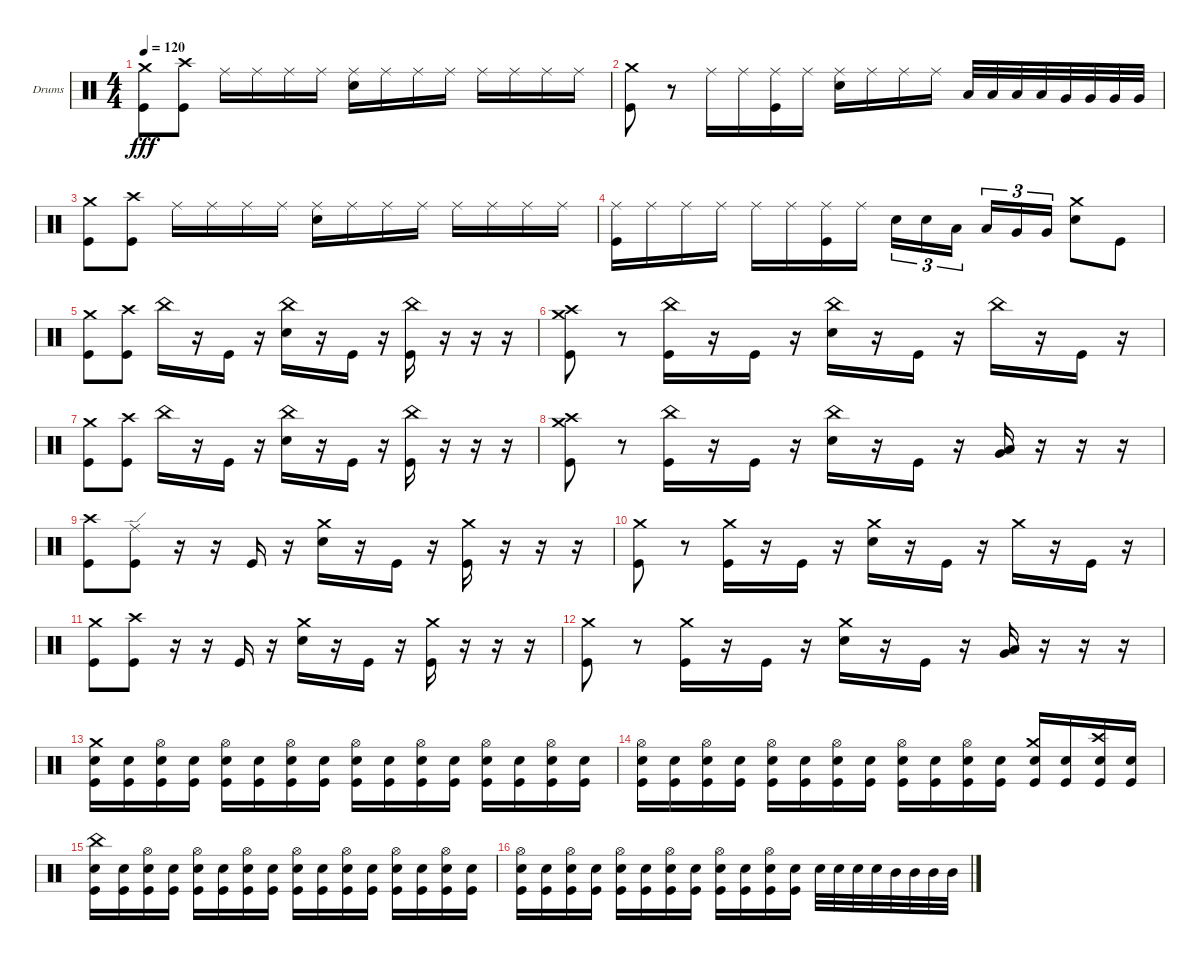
\bracketExtendMode groupsimilarinstruments
\firstSystemTrackNameOrientation horizontal
\otherSystemsTrackNameOrientation horizontal
\track ("Drumkit" "Drums") {instrument percussion}
\staff {score}
\articulation defaults
\ts (4 4)
\tempo 120
\clef neutral
\ks c
("Kick (hit)" "Crash medium (hit)").8{dy fff} ("Crash high (hit)" "Kick (hit)").8 "Ride (middle)".16 "Ride (middle)".16 "Ride (middle)".16 "Ride (middle)".16 ("Ride (middle)" "Snare (hit) 2").16 "Ride (middle)".16 "Ride (middle)".16 "Ride (middle)".16 "Ride (middle)".16 "Ride (middle)".16 "Ride (middle)".16 "Ride (middle)".16 |
("Kick (hit)" "Crash medium (hit)").8 r.8 "Ride (middle)".16 "Ride (middle)".16 ("Ride (middle)" "Kick (hit)").16 "Ride (middle)".16 ("Snare (hit) 2" "Ride (middle)").16 "Ride (middle)".16 "Ride (middle)".16 "Ride (middle)".16 "Low Tom (hit)".32 "Low Tom (hit)".32 "Low Tom (hit)".32 "Low Tom (hit)".32 "Very Low Tom (hit)".32 "Very Low Tom (hit)".32 "Very Low Tom (hit)".32 "Very Low Tom (hit)".32 |
("Kick (hit)" "Crash medium (hit)").8 ("Crash high (hit)" "Kick (hit)").8 "Ride (middle)".16 "Ride (middle)".16 "Ride (middle)".16 "Ride (middle)".16 ("Ride (middle)" "Snare (hit) 2").16 "Ride (middle)".16 "Ride (middle)".16 "Ride (middle)".16 "Ride (middle)".16 "Ride (middle)".16 "Ride (middle)".16 "Ride (middle)".16 |
("Kick (hit)" "Ride (middle)").16 "Ride (middle)".16 "Ride (middle)".16 "Ride (middle)".16 "Ride (middle)".16 "Ride (middle)".16 ("Ride (middle)" "Kick (hit)").16 "Ride (middle)".16 "Snare (hit) 2".16{tu (3 2)} "Snare (hit) 2".16{tu (3 2)} "Low Tom (hit)".16{tu (3 2)} "Low Tom (hit)".16{tu (3 2)} "Very Low Tom (hit)".16{tu (3 2)} "Very Low Tom (hit)".16{tu (3 2)} ("Snare (hit) 2" "Crash medium (hit)").8 "Kick (hit)".8 |
("Kick (hit)" "Crash medium (hit)").8 ("Crash high (hit)" "Kick (hit)").8 "China (hit)".16 r.16 "Kick (hit)".16 r.16 ("China (hit)" "Snare (hit) 2").16 r.16 "Kick (hit)".16 r.16 ("China (hit)" "Kick (hit)").16 r.16 r.16 r.16 |
("Kick (hit)" "Crash medium (hit)" "Crash high (hit)").8 r.8 ("China (hit)" "Kick (hit)").16 r.16 "Kick (hit)".16 r.16 ("China (hit)" "Snare (hit) 2").16 r.16 "Kick (hit)".16 r.16 "China (hit)".16 r.16 "Kick (hit)".16 r.16 |
("Kick (hit)" "Crash medium (hit)").8 ("Crash high (hit)" "Kick (hit)").8 "China (hit)".16 r.16 "Kick (hit)".16 r.16 ("China (hit)" "Snare (hit) 2").16 r.16 "Kick (hit)".16 r.16 ("China (hit)" "Kick (hit)").16 r.16 r.16 r.16 |
("Kick (hit)" "Crash medium (hit)" "Crash high (hit)").8 r.8 ("China (hit)" "Kick (hit)").16 r.16 "Kick (hit)".16 r.16 ("China (hit)" "Snare (hit) 2").16 r.16 "Kick (hit)".16 r.16 ("Very Low Tom (hit)" "Low Tom (hit)").16 r.16 r.16 r.16 |
("Kick (hit)" "Crash high (hit)").8 ("Kick (hit)" "Ride (edge)").8 r.16 r.16 "Kick (hit)".16 r.16 ("Snare (hit) 2" "Crash medium (hit)").16 r.16 "Kick (hit)".16 r.16 ("Kick (hit)" "Crash medium (hit)").16 r.16 r.16 r.16 |
("Kick (hit)" "Crash medium (hit)").8 r.8 ("Kick (hit)" "Crash medium (hit)").16 r.16 "Kick (hit)".16 r.16 ("Snare (hit) 2" "Crash medium (hit)").16 r.16 "Kick (hit)".16 r.16 "Crash medium (hit)".16 r.16 "Kick (hit)".16 r.16 |
("Kick (hit)" "Crash medium (hit)").8 ("Crash high (hit)" "Kick (hit)").8 r.16 r.16 "Kick (hit)".16 r.16 ("Snare (hit) 2" "Crash medium (hit)").16 r.16 "Kick (hit)".16 r.16 ("Kick (hit)" "Crash medium (hit)").16 r.16 r.16 r.16 |
("Kick (hit)" "Crash medium (hit)").8 r.8 ("Kick (hit)" "Crash medium (hit)").16 r.16 "Kick (hit)".16 r.16 ("Snare (hit) 2" "Crash medium (hit)").16 r.16 "Kick (hit)".16 r.16 ("Low Tom (hit)" "Very Low Tom (hit)").16 r.16 r.16 r.16 |
("Snare (hit) 2" "Kick (hit)" "Crash medium (hit)").16 ("Snare (hit) 2" "Kick (hit)").16 ("Snare (hit) 2" "Kick (hit)" "Hi-Hat (open)").16 ("Snare (hit) 2" "Kick (hit)").16 ("Snare (hit) 2" "Kick (hit)" "Hi-Hat (open)").16 ("Snare (hit) 2" "Kick (hit)").16 ("Snare (hit) 2" "Kick (hit)" "Hi-Hat (open)").16 ("Snare (hit) 2" "Kick (hit)").16 ("Snare (hit) 2" "Kick (hit)" "Hi-Hat (open)").16 ("Snare (hit) 2" "Kick (hit)").16 ("Snare (hit) 2" "Kick (hit)" "Hi-Hat (open)").16 ("Snare (hit) 2" "Kick (hit)").16 ("Snare (hit) 2" "Kick (hit)" "Hi-Hat (open)").16 ("Snare (hit) 2" "Kick (hit)").16 ("Snare (hit) 2" "Kick (hit)" "Hi-Hat (open)").16 ("Snare (hit) 2" "Kick (hit)").16 |
("Snare (hit) 2" "Kick (hit)" "Hi-Hat (open)").16 ("Snare (hit) 2" "Kick (hit)").16 ("Snare (hit) 2" "Kick (hit)" "Hi-Hat (open)").16 ("Snare (hit) 2" "Kick (hit)").16 ("Snare (hit) 2" "Kick (hit)" "Hi-Hat (open)").16 ("Snare (hit) 2" "Kick (hit)").16 ("Snare (hit) 2" "Kick (hit)" "Hi-Hat (open)").16 ("Snare (hit) 2" "Kick (hit)").16 ("Snare (hit) 2" "Kick (hit)" "Hi-Hat (open)").16 ("Snare (hit) 2" "Kick (hit)").16 ("Snare (hit) 2" "Kick (hit)" "Hi-Hat (open)").16 ("Snare (hit) 2" "Kick (hit)").16 ("Snare (hit) 2" "Kick (hit)" "Crash medium (hit)").16 ("Snare (hit) 2" "Kick (hit)").16 ("Snare (hit) 2" "Kick (hit)" "Crash high (hit)").16 ("Snare (hit) 2" "Kick (hit)").16 |
("Snare (hit) 2" "Kick (hit)" "China (hit)").16 ("Snare (hit) 2" "Kick (hit)").16 ("Snare (hit) 2" "Kick (hit)" "Hi-Hat (open)").16 ("Snare (hit) 2" "Kick (hit)").16 ("Snare (hit) 2" "Kick (hit)" "Hi-Hat (open)").16 ("Snare (hit) 2" "Kick (hit)").16 ("Snare (hit) 2" "Kick (hit)" "Hi-Hat (open)").16 ("Snare (hit) 2" "Kick (hit)").16 ("Snare (hit) 2" "Kick (hit)" "Hi-Hat (open)").16 ("Snare (hit) 2" "Kick (hit)").16 ("Snare (hit) 2" "Kick (hit)" "Hi-Hat (open)").16 ("Snare (hit) 2" "Kick (hit)").16 ("Snare (hit) 2" "Kick (hit)" "Hi-Hat (open)").16 ("Snare (hit) 2" "Kick (hit)").16 ("Snare (hit) 2" "Kick (hit)" "Hi-Hat (open)").16 ("Snare (hit) 2" "Kick (hit)").16 |
("Snare (hit) 2" "Kick (hit)" "Hi-Hat (open)").16 ("Snare (hit) 2" "Kick (hit)").16 ("Snare (hit) 2" "Kick (hit)" "Hi-Hat (open)").16 ("Snare (hit) 2" "Kick (hit)").16 ("Snare (hit) 2" "Kick (hit)" "Hi-Hat (open)").16 ("Snare (hit) 2" "Kick (hit)").16 ("Snare (hit) 2" "Kick (hit)" "Hi-Hat (open)").16 ("Snare (hit) 2" "Kick (hit)").16 ("Snare (hit) 2" "Kick (hit)" "Hi-Hat (open)").16 ("Snare (hit) 2" "Kick (hit)").16 ("Snare (hit) 2" "Kick (hit)" "Hi-Hat (open)").16 ("Snare (hit) 2" "Kick (hit)").16 "Snare (hit) 2".32 "Snare (hit) 2".32 "Snare (hit) 2".32 "Snare (hit) 2".32 "Mid Tom (hit)".32 "Mid Tom (hit)".32 "Mid Tom (hit)".32 "Mid Tom (hit)".32
